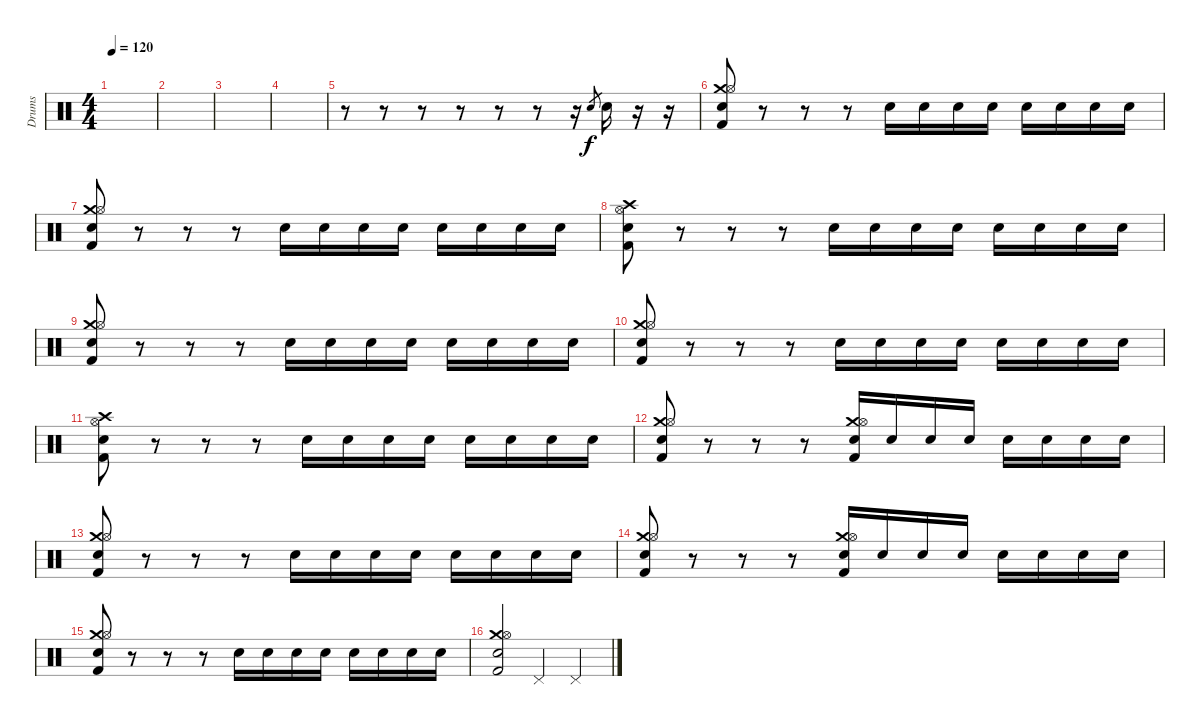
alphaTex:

\track ("Drums" "Drums") {instrument percussion}
\staff {score}
\articulation defaults
\ts (4 4)
\tempo 120
\clef neutral
\ks c
|
|
|
|
r.8 r.8 r.8 r.8 r.8 r.8 r.16 "Snare (hit) 2".8{gr} "Snare (hit) 2".16 r.16 r.16 |
("Crash medium (hit)" "Hi-Hat (open)" "Snare (hit) 2" "Kick (hit) 2").8 r.8 r.8 r.8 "Snare (hit) 2".16 "Snare (hit) 2".16 "Snare (hit) 2".16 "Snare (hit) 2".16 "Snare (hit) 2".16 "Snare (hit) 2".16 "Snare (hit) 2".16 "Snare (hit) 2".16 |
("Crash medium (hit)" "Hi-Hat (open)" "Snare (hit) 2" "Kick (hit) 2").8 r.8 r.8 r.8 "Snare (hit) 2".16 "Snare (hit) 2".16 "Snare (hit) 2".16 "Snare (hit) 2".16 "Snare (hit) 2".16 "Snare (hit) 2".16 "Snare (hit) 2".16 "Snare (hit) 2".16 |
("Crash high (hit)" "Hi-Hat (open)" "Snare (hit) 2" "Kick (hit) 2").8 r.8 r.8 r.8 "Snare (hit) 2".16 "Snare (hit) 2".16 "Snare (hit) 2".16 "Snare (hit) 2".16 "Snare (hit) 2".16 "Snare (hit) 2".16 "Snare (hit) 2".16 "Snare (hit) 2".16 |
("Crash medium (hit)" "Hi-Hat (open)" "Snare (hit) 2" "Kick (hit) 2").8 r.8 r.8 r.8 "Snare (hit) 2".16 "Snare (hit) 2".16 "Snare (hit) 2".16 "Snare (hit) 2".16 "Snare (hit) 2".16 "Snare (hit) 2".16 "Snare (hit) 2".16 "Snare (hit) 2".16 |
("Crash medium (hit)" "Hi-Hat (open)" "Snare (hit) 2" "Kick (hit) 2").8 r.8 r.8 r.8 "Snare (hit) 2".16 "Snare (hit) 2".16 "Snare (hit) 2".16 "Snare (hit) 2".16 "Snare (hit) 2".16 "Snare (hit) 2".16 "Snare (hit) 2".16 "Snare (hit) 2".16 |
("Crash high (hit)" "Hi-Hat (open)" "Snare (hit) 2" "Kick (hit) 2").8 r.8 r.8 r.8 "Snare (hit) 2".16 "Snare (hit) 2".16 "Snare (hit) 2".16 "Snare (hit) 2".16 "Snare (hit) 2".16 "Snare (hit) 2".16 "Snare (hit) 2".16 "Snare (hit) 2".16 |
("Crash medium (hit)" "Hi-Hat (open)" "Snare (hit) 2" "Kick (hit) 2").8 r.8 r.8 r.8 ("Crash medium (hit)" "Hi-Hat (open)" "Snare (hit) 2" "Kick (hit) 2").16 "Snare (hit) 2".16 "Snare (hit) 2".16 "Snare (hit) 2".16 "Snare (hit) 2".16 "Snare (hit) 2".16 "Snare (hit) 2".16 "Snare (hit) 2".16 |
("Crash medium (hit)" "Hi-Hat (open)" "Snare (hit) 2" "Kick (hit) 2").8 r.8 r.8 r.8 "Snare (hit) 2".16 "Snare (hit) 2".16 "Snare (hit) 2".16 "Snare (hit) 2".16 "Snare (hit) 2".16 "Snare (hit) 2".16 "Snare (hit) 2".16 "Snare (hit) 2".16 |
("Crash medium (hit)" "Hi-Hat (open)" "Snare (hit) 2" "Kick (hit) 2").8 r.8 r.8 r.8 ("Crash medium (hit)" "Hi-Hat (open)" "Snare (hit) 2" "Kick (hit) 2").16 "Snare (hit) 2".16 "Snare (hit) 2".16 "Snare (hit) 2".16 "Snare (hit) 2".16 "Snare (hit) 2".16 "Snare (hit) 2".16 "Snare (hit) 2".16 |
("Crash medium (hit)" "Hi-Hat (open)" "Snare (hit) 2" "Kick (hit) 2").8 r.8 r.8 r.8 "Snare (hit) 2".16 "Snare (hit) 2".16 "Snare (hit) 2".16 "Snare (hit) 2".16 "Snare (hit) 2".16 "Snare (hit) 2".16 "Snare (hit) 2".16 "Snare (hit) 2".16 |
("Crash medium (hit)" "Hi-Hat (open)" "Snare (hit) 2" "Kick (hit) 2").2 "Pedal Hi-Hat (hit)".4 "Pedal Hi-Hat (hit)".4
